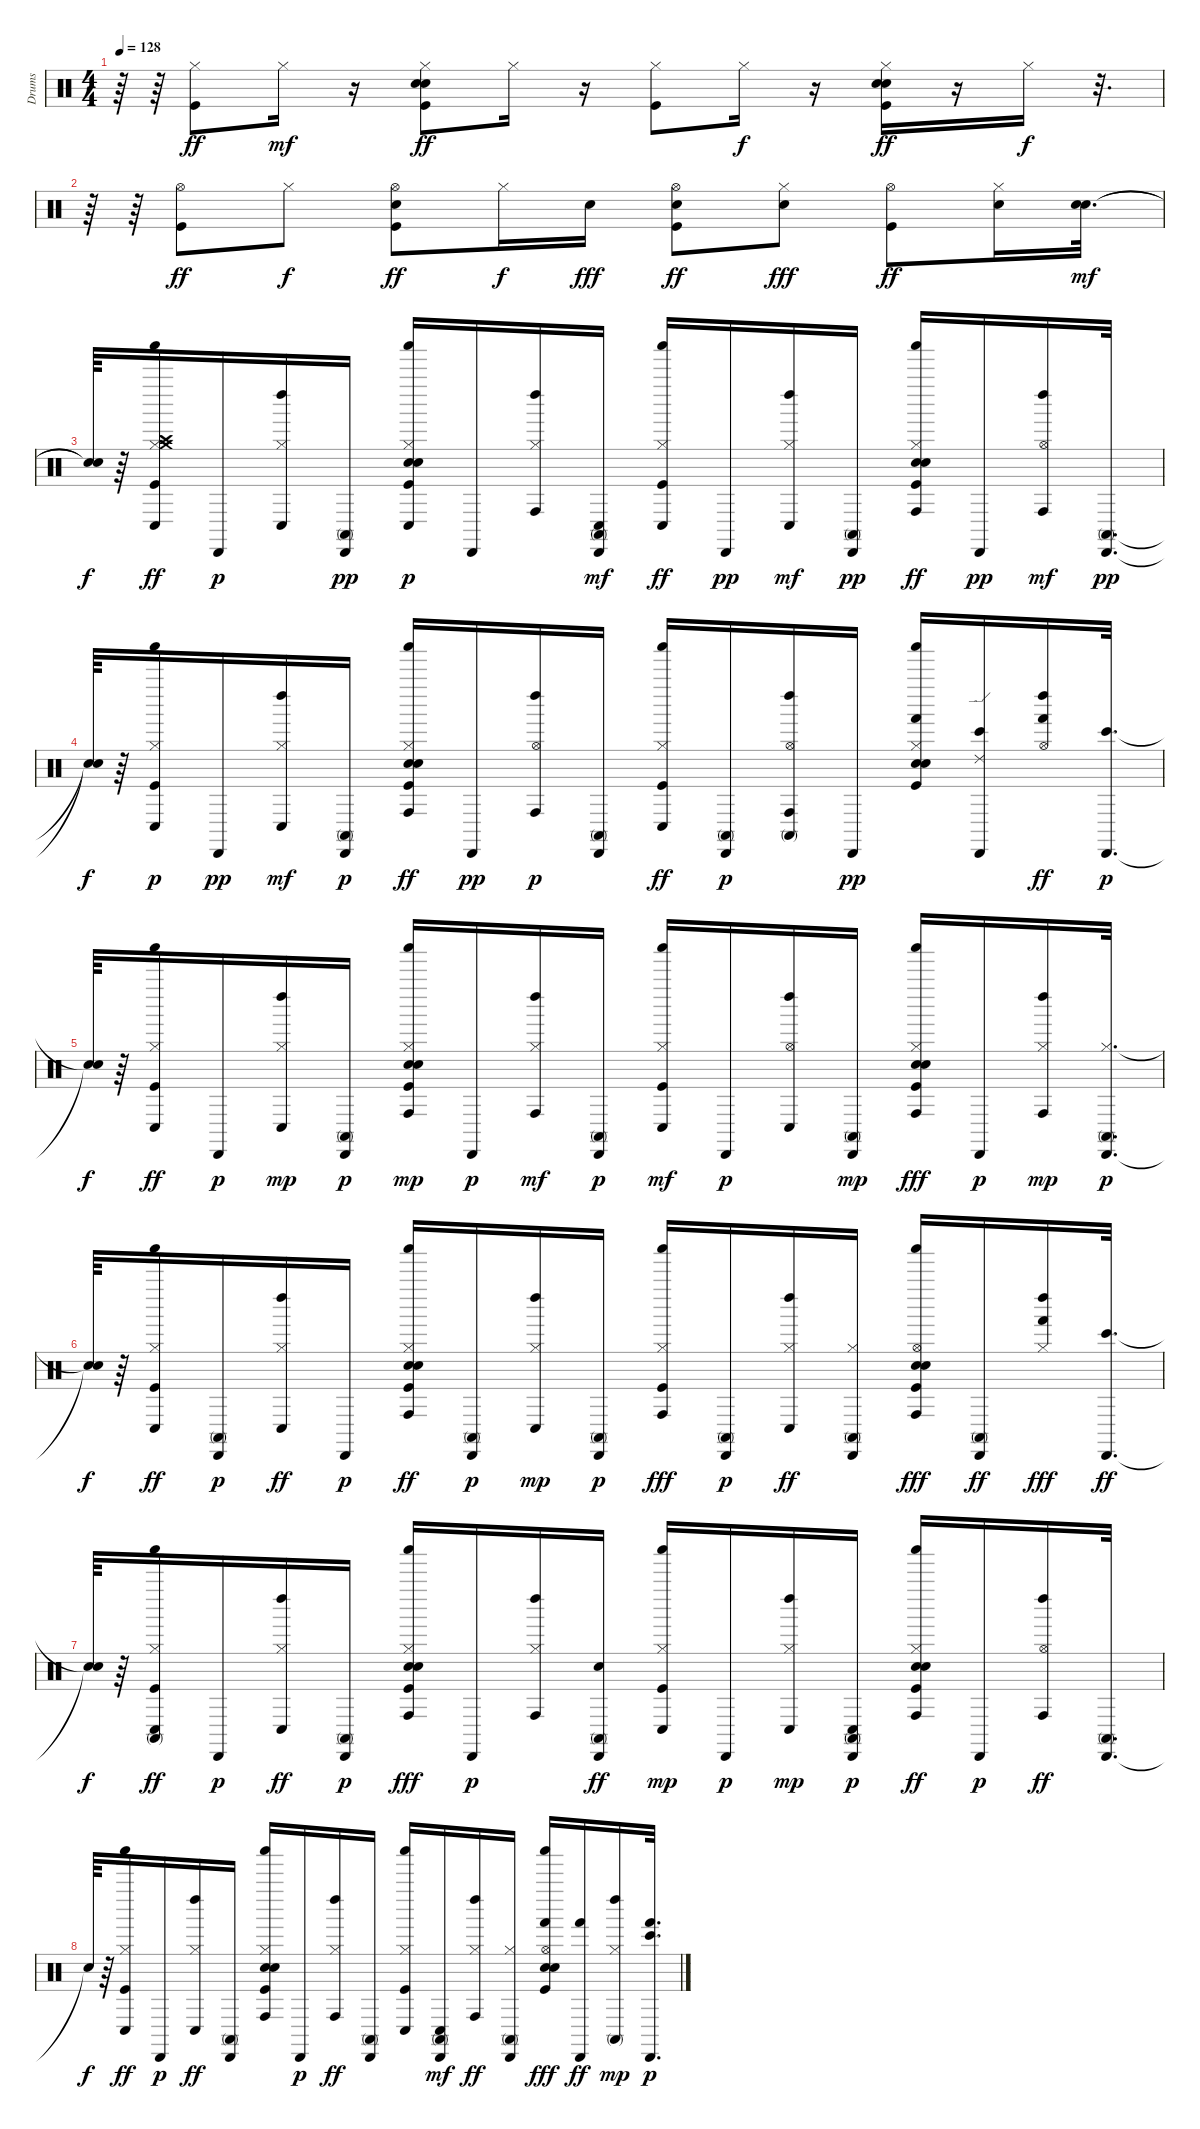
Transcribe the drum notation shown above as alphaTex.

\track ("Drums" "Drums") {instrument percussion}
\staff {score}
\articulation defaults
\ts (4 4)
\tempo 128
\clef neutral
\ks c
r.64{dy f} r.64 ("Kick (hit)" "Hi-Hat (closed)").8{dy ff} "Hi-Hat (closed)".16{dy mf} r.16 ("Kick (hit)" "Electric Snare (hit)" "Hand Clap (hit)" "Hi-Hat (closed)").8{dy ff} "Hi-Hat (closed)".16 r.16 ("Kick (hit)" "Hi-Hat (closed)").8 "Hi-Hat (closed)".16{dy f} r.16 ("Kick (hit)" "Electric Snare (hit)" "Hand Clap (hit)" "Hi-Hat (closed)").16{dy ff} r.16 "Hi-Hat (closed)".16{dy f} r.32{d} |
r.64 r.64 ("Kick (hit)" "Hi-Hat (open)").8{dy ff} "Hi-Hat (closed)".8{dy f} ("Kick (hit)" "Electric Snare (hit)" "Hi-Hat (open)").8{dy ff} "Hi-Hat (closed)".16{dy f} "Electric Snare (hit)".16{dy fff} ("Kick (hit)" "Electric Snare (hit)" "Hi-Hat (open)").8{dy ff} ("Electric Snare (hit)" "Hi-Hat (closed)").8{dy fff} ("Kick (hit)" "Hi-Hat (open)").8{dy ff} ("Electric Snare (hit)" "Hi-Hat (closed)").16 ("Electric Snare (hit)" "Snare (hit) 2").32{d dy mf} |
("Snare (hit)"{t} "Snare (hit)"{t}).64{dy f} r.64 ("Kick (hit)" "Hi-Hat (closed)" "Crash medium (hit)" "Crash high (hit)" "Shaker (hit)" "Conga low (hit)").16{dy ff} "Cabasa (hit)".16{dy p} ("Hi-Hat (closed)" "Left Maraca (hit)" "Conga low (hit)").16 ("Cabasa (hit)" "Conga high (mute)").16{dy pp} ("Kick (hit)" "Snare (hit) 2" "Hand Clap (hit)" "Hi-Hat (closed)" "Shaker (hit)" "Conga low (hit)").16{dy p} "Cabasa (hit)".16 ("Hi-Hat (closed)" "Left Maraca (hit)" "Conga high (hit)").16 ("Cabasa (hit)" "Conga high (mute)" "Conga low (hit)").16{dy mf} ("Kick (hit)" "Hi-Hat (closed)" "Shaker (hit)" "Conga low (hit)").16{dy ff} "Cabasa (hit)".16{dy pp} ("Hi-Hat (closed)" "Left Maraca (hit)" "Conga low (hit)").16{dy mf} ("Cabasa (hit)" "Conga high (mute)").16{dy pp} ("Kick (hit)" "Snare (hit) 2" "Hand Clap (hit)" "Hi-Hat (closed)" "Shaker (hit)" "Conga high (hit)").16{dy ff} "Cabasa (hit)".16{dy pp} ("Hi-Hat (open)" "Left Maraca (hit)" "Conga high (hit)").16{dy mf} ("Cabasa (hit)" "Conga high (mute)").32{d dy pp} |
("Snare (hit)"{t} "Snare (hit)"{t}).64{dy f} r.64 ("Kick (hit)" "Hi-Hat (closed)" "Shaker (hit)" "Conga low (hit)").16{dy p} "Cabasa (hit)".16{dy pp} ("Hi-Hat (closed)" "Left Maraca (hit)" "Conga low (hit)").16{dy mf} ("Cabasa (hit)" "Conga high (mute)").16{dy p} ("Kick (hit)" "Snare (hit) 2" "Hand Clap (hit)" "Hi-Hat (closed)" "Shaker (hit)" "Conga high (hit)").16{dy ff} "Cabasa (hit)".16{dy pp} ("Hi-Hat (open)" "Left Maraca (hit)" "Conga high (hit)").16{dy p} ("Cabasa (hit)" "Conga high (mute)").16 ("Kick (hit)" "Hi-Hat (closed)" "Shaker (hit)" "Conga low (hit)").16{dy ff} ("Cabasa (hit)" "Conga high (mute)").16{dy p} ("Hi-Hat (open)" "Left Maraca (hit)" "Conga high (hit)" "Conga high (mute)").16 "Cabasa (hit)".16{dy pp} ("Kick (hit)" "Snare (hit) 2" "Hand Clap (hit)" "Hi-Hat (closed)" "Shaker (hit)" "Hand (hit)").16 ("Cabasa (hit)" "Bongo High (hit)" "Ride (edge) 2").16 ("Hi-Hat (open)" "Left Maraca (hit)" "Hand (hit)").16{dy ff} ("Cabasa (hit)" "Bongo High (hit)").32{d dy p} |
("Snare (hit)"{t} "Snare (hit)"{t}).64{dy f} r.64 ("Kick (hit)" "Hi-Hat (closed)" "Shaker (hit)" "Conga low (hit)").16{dy ff} "Cabasa (hit)".16{dy p} ("Hi-Hat (closed)" "Left Maraca (hit)" "Conga low (hit)").16{dy mp} ("Cabasa (hit)" "Conga high (mute)").16{dy p} ("Kick (hit)" "Snare (hit) 2" "Hand Clap (hit)" "Hi-Hat (closed)" "Shaker (hit)" "Conga high (hit)").16{dy mp} "Cabasa (hit)".16{dy p} ("Hi-Hat (closed)" "Left Maraca (hit)" "Conga high (hit)").16{dy mf} ("Cabasa (hit)" "Conga high (mute)").16{dy p} ("Kick (hit)" "Hi-Hat (closed)" "Shaker (hit)" "Conga low (hit)").16{dy mf} "Cabasa (hit)".16{dy p} ("Hi-Hat (open)" "Left Maraca (hit)" "Conga low (hit)").16 ("Cabasa (hit)" "Conga high (mute)").16{dy mp} ("Kick (hit)" "Snare (hit) 2" "Hand Clap (hit)" "Hi-Hat (closed)" "Shaker (hit)" "Conga high (hit)").16{dy fff} "Cabasa (hit)".16{dy p} ("Hi-Hat (closed)" "Left Maraca (hit)" "Conga high (hit)").16{dy mp} ("Hi-Hat (closed)" "Cabasa (hit)" "Conga high (mute)").32{d dy p} |
("Snare (hit)"{t} "Snare (hit)"{t}).64{dy f} r.64 ("Kick (hit)" "Hi-Hat (closed)" "Shaker (hit)" "Conga low (hit)").16{dy ff} ("Cabasa (hit)" "Conga high (mute)").16{dy p} ("Hi-Hat (closed)" "Left Maraca (hit)" "Conga low (hit)").16{dy ff} "Cabasa (hit)".16{dy p} ("Kick (hit)" "Snare (hit) 2" "Hand Clap (hit)" "Hi-Hat (closed)" "Shaker (hit)" "Conga high (hit)").16{dy ff} ("Cabasa (hit)" "Conga high (mute)").16{dy p} ("Hi-Hat (closed)" "Left Maraca (hit)" "Conga low (hit)").16{dy mp} ("Cabasa (hit)" "Conga high (mute)").16{dy p} ("Kick (hit)" "Hi-Hat (closed)" "Shaker (hit)" "Conga high (hit)").16{dy fff} ("Cabasa (hit)" "Conga high (mute)").16{dy p} ("Hi-Hat (closed)" "Left Maraca (hit)" "Conga low (hit)").16{dy ff} ("Hi-Hat (closed)" "Cabasa (hit)" "Conga high (mute)").16 ("Kick (hit)" "Snare (hit) 2" "Hand Clap (hit)" "Hi-Hat (open)" "Shaker (hit)" "Conga high (hit)").16{dy fff} ("Cabasa (hit)" "Conga high (mute)").16{dy ff} ("Hi-Hat (closed)" "Left Maraca (hit)" "Hand (hit)").16{dy fff} ("Cabasa (hit)" "Bongo High (hit)").32{d dy ff} |
("Snare (hit)"{t} "Snare (hit)"{t}).64{dy f} r.64 ("Kick (hit)" "Hi-Hat (closed)" "Shaker (hit)" "Conga low (hit)" "Conga high (mute)").16{dy ff} "Cabasa (hit)".16{dy p} ("Hi-Hat (closed)" "Left Maraca (hit)" "Conga low (hit)").16{dy ff} ("Cabasa (hit)" "Conga high (mute)").16{dy p} ("Kick (hit)" "Snare (hit) 2" "Hand Clap (hit)" "Hi-Hat (closed)" "Shaker (hit)" "Conga high (hit)").16{dy fff} "Cabasa (hit)".16{dy p} ("Hi-Hat (closed)" "Left Maraca (hit)" "Conga high (hit)").16 ("Snare (hit) 2" "Cabasa (hit)" "Conga high (mute)").16{dy ff} ("Kick (hit)" "Hi-Hat (closed)" "Shaker (hit)" "Conga low (hit)").16{dy mp} "Cabasa (hit)".16{dy p} ("Hi-Hat (closed)" "Left Maraca (hit)" "Conga low (hit)").16{dy mp} ("Cabasa (hit)" "Conga high (mute)" "Conga low (hit)").16{dy p} ("Kick (hit)" "Snare (hit) 2" "Hand Clap (hit)" "Hi-Hat (closed)" "Shaker (hit)" "Conga high (hit)").16{dy ff} "Cabasa (hit)".16{dy p} ("Hi-Hat (open)" "Left Maraca (hit)" "Conga high (hit)").16{dy ff} ("Cabasa (hit)" "Conga high (mute)").32{d} |
"Snare (hit)"{t}.64{dy f} r.64 ("Kick (hit)" "Hi-Hat (closed)" "Shaker (hit)" "Conga low (hit)").16{dy ff} "Cabasa (hit)".16{dy p} ("Hi-Hat (closed)" "Left Maraca (hit)" "Conga low (hit)").16{dy ff} ("Cabasa (hit)" "Conga high (mute)").16 ("Kick (hit)" "Snare (hit) 2" "Hand Clap (hit)" "Hi-Hat (closed)" "Shaker (hit)" "Conga high (hit)").16 "Cabasa (hit)".16{dy p} ("Hi-Hat (closed)" "Left Maraca (hit)" "Conga high (hit)").16{dy ff} ("Cabasa (hit)" "Conga high (mute)").16 ("Kick (hit)" "Hi-Hat (closed)" "Shaker (hit)" "Conga low (hit)").16 ("Cabasa (hit)" "Conga high (mute)" "Conga low (hit)").16{dy mf} ("Hi-Hat (closed)" "Left Maraca (hit)" "Conga high (hit)").16{dy ff} ("Hi-Hat (closed)" "Cabasa (hit)" "Conga high (mute)").16 ("Kick (hit)" "Snare (hit) 2" "Hand Clap (hit)" "Hi-Hat (open)" "Shaker (hit)" "Hand (hit)").16{dy fff} ("Cabasa (hit)" "Hand (hit)").16{dy ff} ("Hi-Hat (closed)" "Left Maraca (hit)" "Conga high (mute)").16{dy mp} ("Cabasa (hit)" "Hand (hit)" "Bongo High (hit)").32{d dy p}
